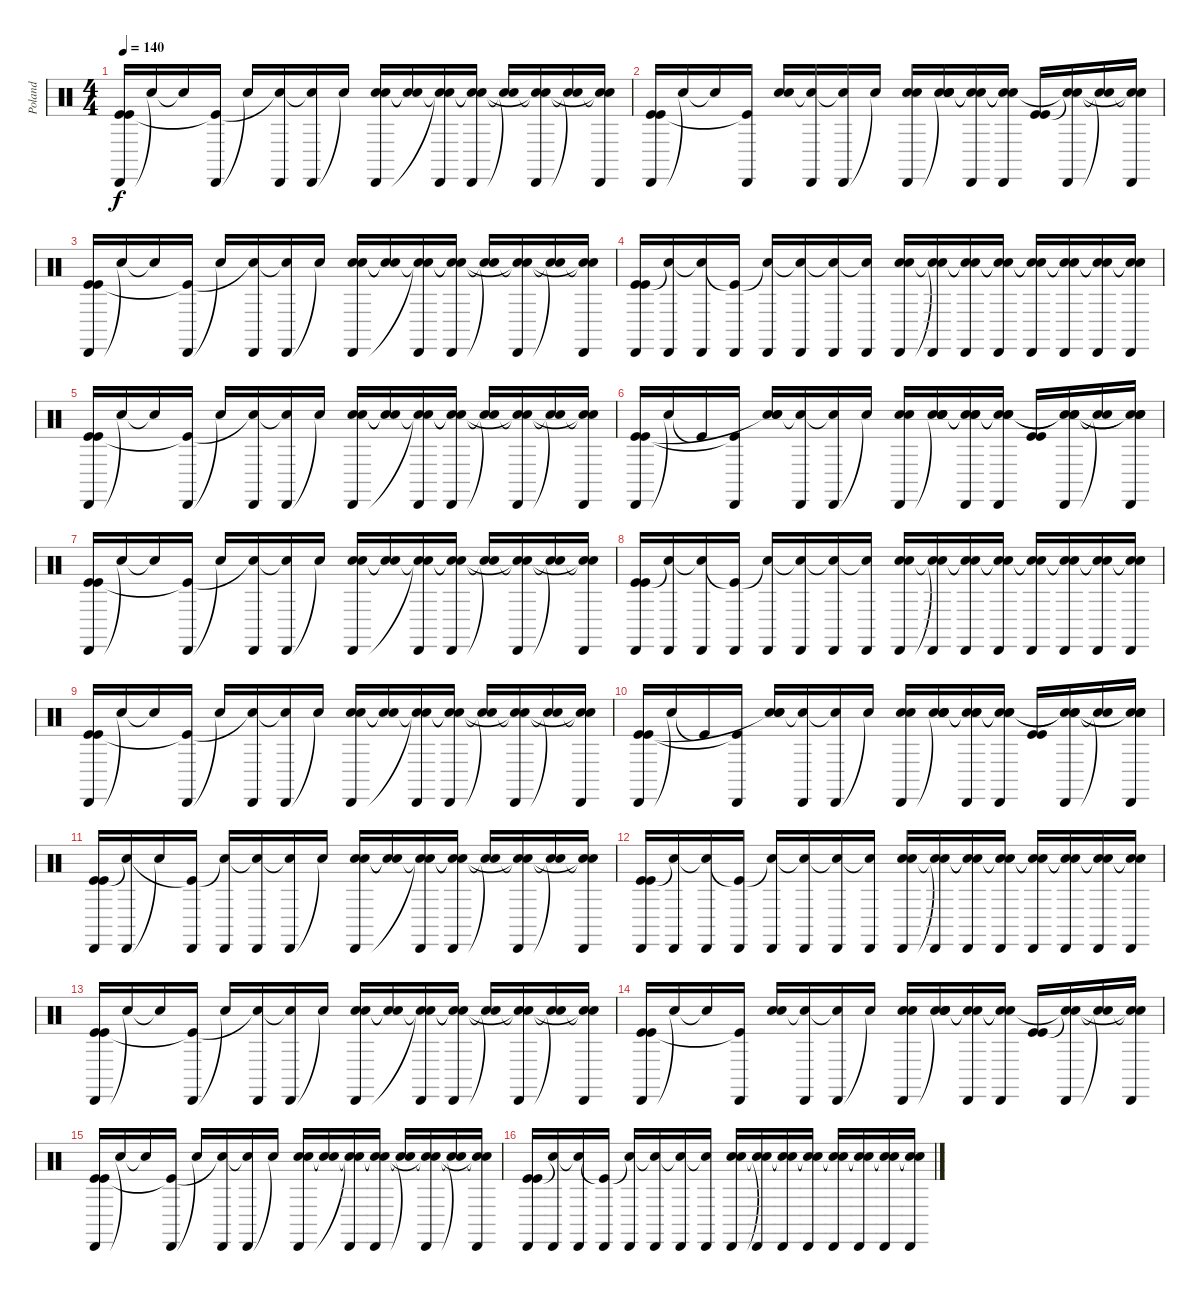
\track ("Poland" "Poland") {instrument percussion}
\staff {score}
\articulation defaults
\ts (4 4)
\tempo 140
\clef neutral
\ks c
("Cabasa (hit)" "Kick (hit)" "Kick (hit)").16{dy f} "Snare (hit)"{t}.16 "Snare (hit)"{t}.16 ("Cabasa (hit)" "Kick (hit)"{t}).16 "Snare (hit)"{t}.16 ("Cabasa (hit)" "Snare (hit)"{t}).16 ("Cabasa (hit)" "Snare (hit)"{t}).16 "Snare (hit)"{t}.16 ("Hand Clap (hit)" "Hand Clap (hit)" "Cabasa (hit)").16 ("Snare (hit)"{t} "Snare (hit)"{t}).16 ("Cabasa (hit)" "Snare (hit)"{t} "Snare (hit)"{t}).16 ("Cabasa (hit)" "Snare (hit)"{t} "Snare (hit)"{t}).16 ("Snare (hit)"{t} "Snare (hit)"{t}).16 ("Cabasa (hit)" "Snare (hit)"{t} "Snare (hit)"{t}).16 ("Snare (hit)"{t} "Snare (hit)"{t}).16 ("Cabasa (hit)" "Snare (hit)"{t} "Snare (hit)"{t}).16 |
("Cabasa (hit)" "Kick (hit)" "Kick (hit)").16 "Snare (hit)"{t}.16 "Snare (hit)"{t}.16 ("Cabasa (hit)" "Kick (hit)"{t}).16 ("Hand Clap (hit)" "Hand Clap (hit)").16 ("Cabasa (hit)" "Snare (hit)"{t}).16 ("Cabasa (hit)" "Snare (hit)"{t}).16 "Snare (hit)"{t}.16 ("Hand Clap (hit)" "Hand Clap (hit)" "Cabasa (hit)").16 ("Hand Clap (hit)" "Hand Clap (hit)" "Snare (hit)"{t} "Snare (hit)").16 ("Cabasa (hit)" "Snare (hit)"{t} "Snare (hit)"{t}).16 ("Cabasa (hit)" "Snare (hit)"{t} "Snare (hit)"{t}).16 ("Kick (hit)" "Kick (hit)").16 ("Cabasa (hit)" "Snare (hit)"{t} "Snare (hit)"{t}).16 ("Snare (hit)"{t} "Snare (hit)"{t}).16 ("Cabasa (hit)" "Snare (hit)"{t} "Snare (hit)"{t}).16 |
("Cabasa (hit)" "Kick (hit)" "Kick (hit)").16 "Snare (hit)"{t}.16 "Snare (hit)"{t}.16 ("Cabasa (hit)" "Kick (hit)"{t}).16 "Snare (hit)"{t}.16 ("Cabasa (hit)" "Snare (hit)"{t}).16 ("Cabasa (hit)" "Snare (hit)"{t}).16 "Snare (hit)"{t}.16 ("Hand Clap (hit)" "Hand Clap (hit)" "Cabasa (hit)").16 ("Snare (hit)"{t} "Snare (hit)"{t}).16 ("Cabasa (hit)" "Snare (hit)"{t} "Snare (hit)"{t}).16 ("Cabasa (hit)" "Snare (hit)"{t} "Snare (hit)"{t}).16 ("Snare (hit)"{t} "Snare (hit)"{t}).16 ("Cabasa (hit)" "Snare (hit)"{t} "Snare (hit)"{t}).16 ("Snare (hit)"{t} "Snare (hit)"{t}).16 ("Cabasa (hit)" "Snare (hit)"{t} "Snare (hit)"{t}).16 |
("Cabasa (hit)" "Kick (hit)" "Kick (hit)").16 ("Cabasa (hit)" "Snare (hit)"{t}).16 ("Cabasa (hit)" "Snare (hit)"{t}).16 ("Cabasa (hit)" "Kick (hit)"{t}).16 ("Cabasa (hit)" "Snare (hit)"{t}).16 ("Cabasa (hit)" "Snare (hit)"{t}).16 ("Cabasa (hit)" "Snare (hit)"{t}).16 ("Cabasa (hit)" "Snare (hit)"{t}).16 ("Hand Clap (hit)" "Hand Clap (hit)" "Cabasa (hit)").16 ("Cabasa (hit)" "Snare (hit)"{t} "Snare (hit)"{t}).16 ("Cabasa (hit)" "Snare (hit)"{t} "Snare (hit)"{t}).16 ("Cabasa (hit)" "Snare (hit)"{t} "Snare (hit)"{t}).16 ("Cabasa (hit)" "Snare (hit)"{t} "Snare (hit)"{t}).16 ("Cabasa (hit)" "Snare (hit)"{t} "Snare (hit)"{t}).16 ("Cabasa (hit)" "Snare (hit)"{t} "Snare (hit)"{t}).16 ("Cabasa (hit)" "Snare (hit)"{t} "Snare (hit)"{t}).16 |
("Cabasa (hit)" "Kick (hit)" "Kick (hit)").16 "Snare (hit)"{t}.16 "Snare (hit)"{t}.16 ("Cabasa (hit)" "Kick (hit)"{t}).16 "Snare (hit)"{t}.16 ("Cabasa (hit)" "Snare (hit)"{t}).16 ("Cabasa (hit)" "Snare (hit)"{t}).16 "Snare (hit)"{t}.16 ("Hand Clap (hit)" "Hand Clap (hit)" "Cabasa (hit)").16 ("Snare (hit)"{t} "Snare (hit)"{t}).16 ("Cabasa (hit)" "Snare (hit)"{t} "Snare (hit)"{t}).16 ("Cabasa (hit)" "Snare (hit)"{t} "Snare (hit)"{t}).16 ("Snare (hit)"{t} "Snare (hit)"{t}).16 ("Cabasa (hit)" "Snare (hit)"{t} "Snare (hit)"{t}).16 ("Snare (hit)"{t} "Snare (hit)"{t}).16 ("Cabasa (hit)" "Snare (hit)"{t} "Snare (hit)"{t}).16 |
("Cabasa (hit)" "Kick (hit)" "Kick (hit)").16 "Snare (hit)"{t}.16 "Kick (hit)"{t}.16 ("Cabasa (hit)" "Kick (hit)"{t}).16 ("Hand Clap (hit)" "Hand Clap (hit)" "Snare (hit)"{t}).16 ("Cabasa (hit)" "Snare (hit)"{t}).16 ("Cabasa (hit)" "Snare (hit)"{t}).16 "Snare (hit)"{t}.16 ("Hand Clap (hit)" "Hand Clap (hit)" "Cabasa (hit)").16 ("Hand Clap (hit)" "Hand Clap (hit)" "Snare (hit)"{t} "Snare (hit)").16 ("Hand Clap (hit)" "Cabasa (hit)" "Snare (hit)"{t} "Snare (hit)"{t}).16 ("Hand Clap (hit)" "Cabasa (hit)" "Snare (hit)"{t} "Snare (hit)"{t}).16 ("Kick (hit)" "Kick (hit)").16 ("Hand Clap (hit)" "Cabasa (hit)" "Snare (hit)"{t} "Snare (hit)"{t}).16 ("Snare (hit)"{t} "Snare (hit)"{t}).16 ("Hand Clap (hit)" "Cabasa (hit)" "Snare (hit)"{t} "Snare (hit)"{t}).16 |
("Cabasa (hit)" "Kick (hit)" "Kick (hit)").16 "Snare (hit)"{t}.16 "Snare (hit)"{t}.16 ("Cabasa (hit)" "Kick (hit)"{t}).16 "Snare (hit)"{t}.16 ("Cabasa (hit)" "Snare (hit)"{t}).16 ("Cabasa (hit)" "Snare (hit)"{t}).16 "Snare (hit)"{t}.16 ("Hand Clap (hit)" "Hand Clap (hit)" "Cabasa (hit)").16 ("Snare (hit)"{t} "Snare (hit)"{t}).16 ("Cabasa (hit)" "Snare (hit)"{t} "Snare (hit)"{t}).16 ("Cabasa (hit)" "Snare (hit)"{t} "Snare (hit)"{t}).16 ("Snare (hit)"{t} "Snare (hit)"{t}).16 ("Cabasa (hit)" "Snare (hit)"{t} "Snare (hit)"{t}).16 ("Snare (hit)"{t} "Snare (hit)"{t}).16 ("Cabasa (hit)" "Snare (hit)"{t} "Snare (hit)"{t}).16 |
("Cabasa (hit)" "Kick (hit)" "Kick (hit)").16 ("Cabasa (hit)" "Snare (hit)"{t}).16 ("Cabasa (hit)" "Snare (hit)"{t}).16 ("Cabasa (hit)" "Kick (hit)"{t}).16 ("Cabasa (hit)" "Snare (hit)"{t}).16 ("Cabasa (hit)" "Snare (hit)"{t}).16 ("Cabasa (hit)" "Snare (hit)"{t}).16 ("Cabasa (hit)" "Snare (hit)"{t}).16 ("Hand Clap (hit)" "Hand Clap (hit)" "Cabasa (hit)").16 ("Cabasa (hit)" "Snare (hit)"{t} "Snare (hit)"{t}).16 ("Cabasa (hit)" "Snare (hit)"{t} "Snare (hit)"{t}).16 ("Cabasa (hit)" "Snare (hit)"{t} "Snare (hit)"{t}).16 ("Cabasa (hit)" "Snare (hit)"{t} "Snare (hit)"{t}).16 ("Cabasa (hit)" "Snare (hit)"{t} "Snare (hit)"{t}).16 ("Cabasa (hit)" "Snare (hit)"{t} "Snare (hit)"{t}).16 ("Cabasa (hit)" "Snare (hit)"{t} "Snare (hit)"{t}).16 |
("Cabasa (hit)" "Kick (hit)" "Kick (hit)").16 "Snare (hit)"{t}.16 "Snare (hit)"{t}.16 ("Cabasa (hit)" "Kick (hit)"{t}).16 "Snare (hit)"{t}.16 ("Cabasa (hit)" "Snare (hit)"{t}).16 ("Cabasa (hit)" "Snare (hit)"{t}).16 "Snare (hit)"{t}.16 ("Hand Clap (hit)" "Hand Clap (hit)" "Cabasa (hit)").16 ("Snare (hit)"{t} "Snare (hit)"{t}).16 ("Cabasa (hit)" "Snare (hit)"{t} "Snare (hit)"{t}).16 ("Cabasa (hit)" "Snare (hit)"{t} "Snare (hit)"{t}).16 ("Snare (hit)"{t} "Snare (hit)"{t}).16 ("Cabasa (hit)" "Snare (hit)"{t} "Snare (hit)"{t}).16 ("Snare (hit)"{t} "Snare (hit)"{t}).16 ("Cabasa (hit)" "Snare (hit)"{t} "Snare (hit)"{t}).16 |
("Cabasa (hit)" "Kick (hit)" "Kick (hit)").16 "Snare (hit)"{t}.16 "Kick (hit)"{t}.16 ("Cabasa (hit)" "Kick (hit)"{t}).16 ("Hand Clap (hit)" "Hand Clap (hit)" "Snare (hit)"{t}).16 ("Cabasa (hit)" "Snare (hit)"{t}).16 ("Cabasa (hit)" "Snare (hit)"{t}).16 "Snare (hit)"{t}.16 ("Hand Clap (hit)" "Hand Clap (hit)" "Cabasa (hit)").16 ("Hand Clap (hit)" "Hand Clap (hit)" "Snare (hit)"{t} "Snare (hit)").16 ("Hand Clap (hit)" "Cabasa (hit)" "Snare (hit)"{t} "Snare (hit)"{t}).16 ("Hand Clap (hit)" "Cabasa (hit)" "Snare (hit)"{t} "Snare (hit)"{t}).16 ("Kick (hit)" "Kick (hit)").16 ("Hand Clap (hit)" "Cabasa (hit)" "Snare (hit)"{t} "Snare (hit)"{t}).16 ("Snare (hit)"{t} "Snare (hit)"{t}).16 ("Hand Clap (hit)" "Cabasa (hit)" "Snare (hit)"{t} "Snare (hit)"{t}).16 |
("Cabasa (hit)" "Kick (hit)" "Kick (hit)").16 ("Cabasa (hit)" "Snare (hit)"{t}).16 "Snare (hit)"{t}.16 ("Cabasa (hit)" "Kick (hit)"{t}).16 ("Cabasa (hit)" "Snare (hit)"{t}).16 ("Cabasa (hit)" "Snare (hit)"{t}).16 ("Cabasa (hit)" "Snare (hit)"{t}).16 "Snare (hit)"{t}.16 ("Hand Clap (hit)" "Hand Clap (hit)" "Cabasa (hit)").16 ("Snare (hit)"{t} "Snare (hit)"{t}).16 ("Cabasa (hit)" "Snare (hit)"{t} "Snare (hit)"{t}).16 ("Cabasa (hit)" "Snare (hit)"{t} "Snare (hit)"{t}).16 ("Snare (hit)"{t} "Snare (hit)"{t}).16 ("Cabasa (hit)" "Snare (hit)"{t} "Snare (hit)"{t}).16 ("Snare (hit)"{t} "Snare (hit)"{t}).16 ("Cabasa (hit)" "Snare (hit)"{t} "Snare (hit)"{t}).16 |
("Cabasa (hit)" "Kick (hit)" "Kick (hit)").16 ("Cabasa (hit)" "Snare (hit)"{t}).16 ("Cabasa (hit)" "Snare (hit)"{t}).16 ("Cabasa (hit)" "Kick (hit)"{t}).16 ("Cabasa (hit)" "Snare (hit)"{t}).16 ("Cabasa (hit)" "Snare (hit)"{t}).16 ("Cabasa (hit)" "Snare (hit)"{t}).16 ("Cabasa (hit)" "Snare (hit)"{t}).16 ("Hand Clap (hit)" "Hand Clap (hit)" "Cabasa (hit)").16 ("Cabasa (hit)" "Snare (hit)"{t} "Snare (hit)"{t}).16 ("Cabasa (hit)" "Snare (hit)"{t} "Snare (hit)"{t}).16 ("Cabasa (hit)" "Snare (hit)"{t} "Snare (hit)"{t}).16 ("Cabasa (hit)" "Snare (hit)"{t} "Snare (hit)"{t}).16 ("Cabasa (hit)" "Snare (hit)"{t} "Snare (hit)"{t}).16 ("Cabasa (hit)" "Snare (hit)"{t} "Snare (hit)"{t}).16 ("Cabasa (hit)" "Snare (hit)"{t} "Snare (hit)"{t}).16 |
("Cabasa (hit)" "Kick (hit)" "Kick (hit)").16 "Snare (hit)"{t}.16 "Snare (hit)"{t}.16 ("Cabasa (hit)" "Kick (hit)"{t}).16 "Snare (hit)"{t}.16 ("Cabasa (hit)" "Snare (hit)"{t}).16 ("Cabasa (hit)" "Snare (hit)"{t}).16 "Snare (hit)"{t}.16 ("Hand Clap (hit)" "Hand Clap (hit)" "Cabasa (hit)").16 ("Snare (hit)"{t} "Snare (hit)"{t}).16 ("Cabasa (hit)" "Snare (hit)"{t} "Snare (hit)"{t}).16 ("Cabasa (hit)" "Snare (hit)"{t} "Snare (hit)"{t}).16 ("Snare (hit)"{t} "Snare (hit)"{t}).16 ("Cabasa (hit)" "Snare (hit)"{t} "Snare (hit)"{t}).16 ("Snare (hit)"{t} "Snare (hit)"{t}).16 ("Cabasa (hit)" "Snare (hit)"{t} "Snare (hit)"{t}).16 |
("Cabasa (hit)" "Kick (hit)" "Kick (hit)").16 "Snare (hit)"{t}.16 "Snare (hit)"{t}.16 ("Cabasa (hit)" "Kick (hit)"{t}).16 ("Hand Clap (hit)" "Hand Clap (hit)").16 ("Cabasa (hit)" "Snare (hit)"{t}).16 ("Cabasa (hit)" "Snare (hit)"{t}).16 "Snare (hit)"{t}.16 ("Hand Clap (hit)" "Hand Clap (hit)" "Cabasa (hit)").16 ("Hand Clap (hit)" "Hand Clap (hit)" "Snare (hit)"{t} "Snare (hit)").16 ("Cabasa (hit)" "Snare (hit)"{t} "Snare (hit)"{t}).16 ("Cabasa (hit)" "Snare (hit)"{t} "Snare (hit)"{t}).16 ("Kick (hit)" "Kick (hit)").16 ("Cabasa (hit)" "Snare (hit)"{t} "Snare (hit)"{t}).16 ("Snare (hit)"{t} "Snare (hit)"{t}).16 ("Cabasa (hit)" "Snare (hit)"{t} "Snare (hit)"{t}).16 |
("Cabasa (hit)" "Kick (hit)" "Kick (hit)").16 "Snare (hit)"{t}.16 "Snare (hit)"{t}.16 ("Cabasa (hit)" "Kick (hit)"{t}).16 "Snare (hit)"{t}.16 ("Cabasa (hit)" "Snare (hit)"{t}).16 ("Cabasa (hit)" "Snare (hit)"{t}).16 "Snare (hit)"{t}.16 ("Hand Clap (hit)" "Hand Clap (hit)" "Cabasa (hit)").16 ("Snare (hit)"{t} "Snare (hit)"{t}).16 ("Cabasa (hit)" "Snare (hit)"{t} "Snare (hit)"{t}).16 ("Cabasa (hit)" "Snare (hit)"{t} "Snare (hit)"{t}).16 ("Snare (hit)"{t} "Snare (hit)"{t}).16 ("Cabasa (hit)" "Snare (hit)"{t} "Snare (hit)"{t}).16 ("Snare (hit)"{t} "Snare (hit)"{t}).16 ("Cabasa (hit)" "Snare (hit)"{t} "Snare (hit)"{t}).16 |
("Cabasa (hit)" "Kick (hit)" "Kick (hit)").16 ("Cabasa (hit)" "Snare (hit)"{t}).16 ("Cabasa (hit)" "Snare (hit)"{t}).16 ("Cabasa (hit)" "Kick (hit)"{t}).16 ("Cabasa (hit)" "Snare (hit)"{t}).16 ("Cabasa (hit)" "Snare (hit)"{t}).16 ("Cabasa (hit)" "Snare (hit)"{t}).16 ("Cabasa (hit)" "Snare (hit)"{t}).16 ("Hand Clap (hit)" "Hand Clap (hit)" "Cabasa (hit)").16 ("Cabasa (hit)" "Snare (hit)"{t} "Snare (hit)"{t}).16 ("Cabasa (hit)" "Snare (hit)"{t} "Snare (hit)"{t}).16 ("Cabasa (hit)" "Snare (hit)"{t} "Snare (hit)"{t}).16 ("Cabasa (hit)" "Snare (hit)"{t} "Snare (hit)"{t}).16 ("Cabasa (hit)" "Snare (hit)"{t} "Snare (hit)"{t}).16 ("Cabasa (hit)" "Snare (hit)"{t} "Snare (hit)"{t}).16 ("Cabasa (hit)" "Snare (hit)"{t} "Snare (hit)"{t}).16
